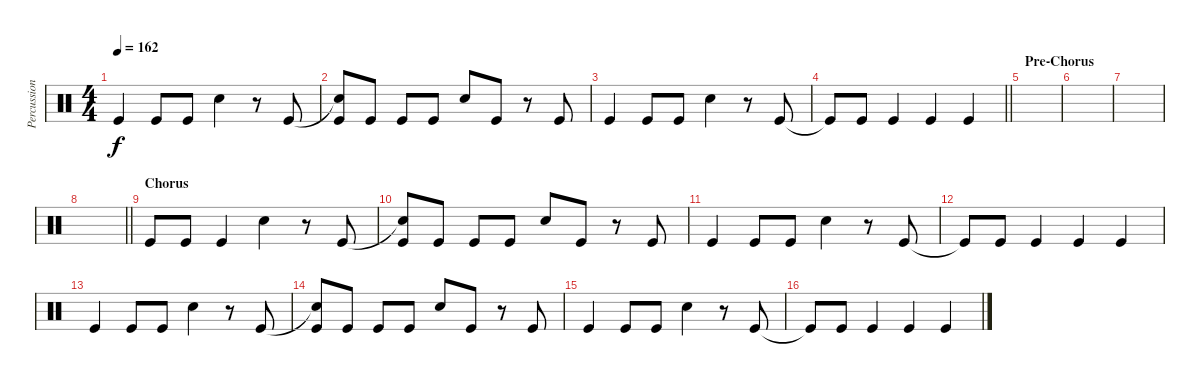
\track ("Percussion" "Percussion") {instrument percussion}
\staff {score}
\articulation defaults
\ts (4 4)
\tempo 162
\clef neutral
\ks c "Kick (hit)".4{dy f} "Kick (hit)".8 "Kick (hit)".8 "Snare (hit) 2".4
r.8 "Kick (hit)".8 |
("Snare (hit)"{t} "Kick (hit)").8 "Kick (hit)".8 "Kick (hit)".8 "Kick (hit)".8 "Snare (hit) 2".8 "Kick (hit)".8 r.8 "Kick (hit)".8 |
"Kick (hit)".4 "Kick (hit)".8 "Kick (hit)".8 "Snare (hit) 2".4 r.8 "Kick (hit)".8 |
\barLineRight lightlight "Kick (hit)"{t}.8 "Kick (hit)".8 "Kick (hit)".4 "Kick (hit)".4 "Kick (hit)".4
|
\section ("" "Pre-Chorus")
|
|
|
\barLineRight lightlight
|
\section ("" "Chorus")
"Kick (hit)".8 "Kick (hit)".8 "Kick (hit)".4 "Snare (hit) 2".4 r.8 "Kick (hit)".8 |
("Snare (hit)"{t} "Kick (hit)").8 "Kick (hit)".8 "Kick (hit)".8 "Kick (hit)".8 "Snare (hit) 2".8 "Kick (hit)".8 r.8 "Kick (hit)".8 |
"Kick (hit)".4 "Kick (hit)".8 "Kick (hit)".8 "Snare (hit) 2".4 r.8 "Kick (hit)".8 |
"Kick (hit)"{t}.8 "Kick (hit)".8 "Kick (hit)".4 "Kick (hit)".4 "Kick (hit)".4 |
"Kick (hit)".4 "Kick (hit)".8 "Kick (hit)".8 "Snare (hit) 2".4 r.8 "Kick (hit)".8 |
("Snare (hit)"{t} "Kick (hit)").8 "Kick (hit)".8 "Kick (hit)".8 "Kick (hit)".8 "Snare (hit) 2".8 "Kick (hit)".8 r.8 "Kick (hit)".8 |
"Kick (hit)".4 "Kick (hit)".8 "Kick (hit)".8 "Snare (hit) 2".4 r.8 "Kick (hit)".8 |
"Kick (hit)"{t}.8 "Kick (hit)".8 "Kick (hit)".4 "Kick (hit)".4 "Kick (hit)".4
